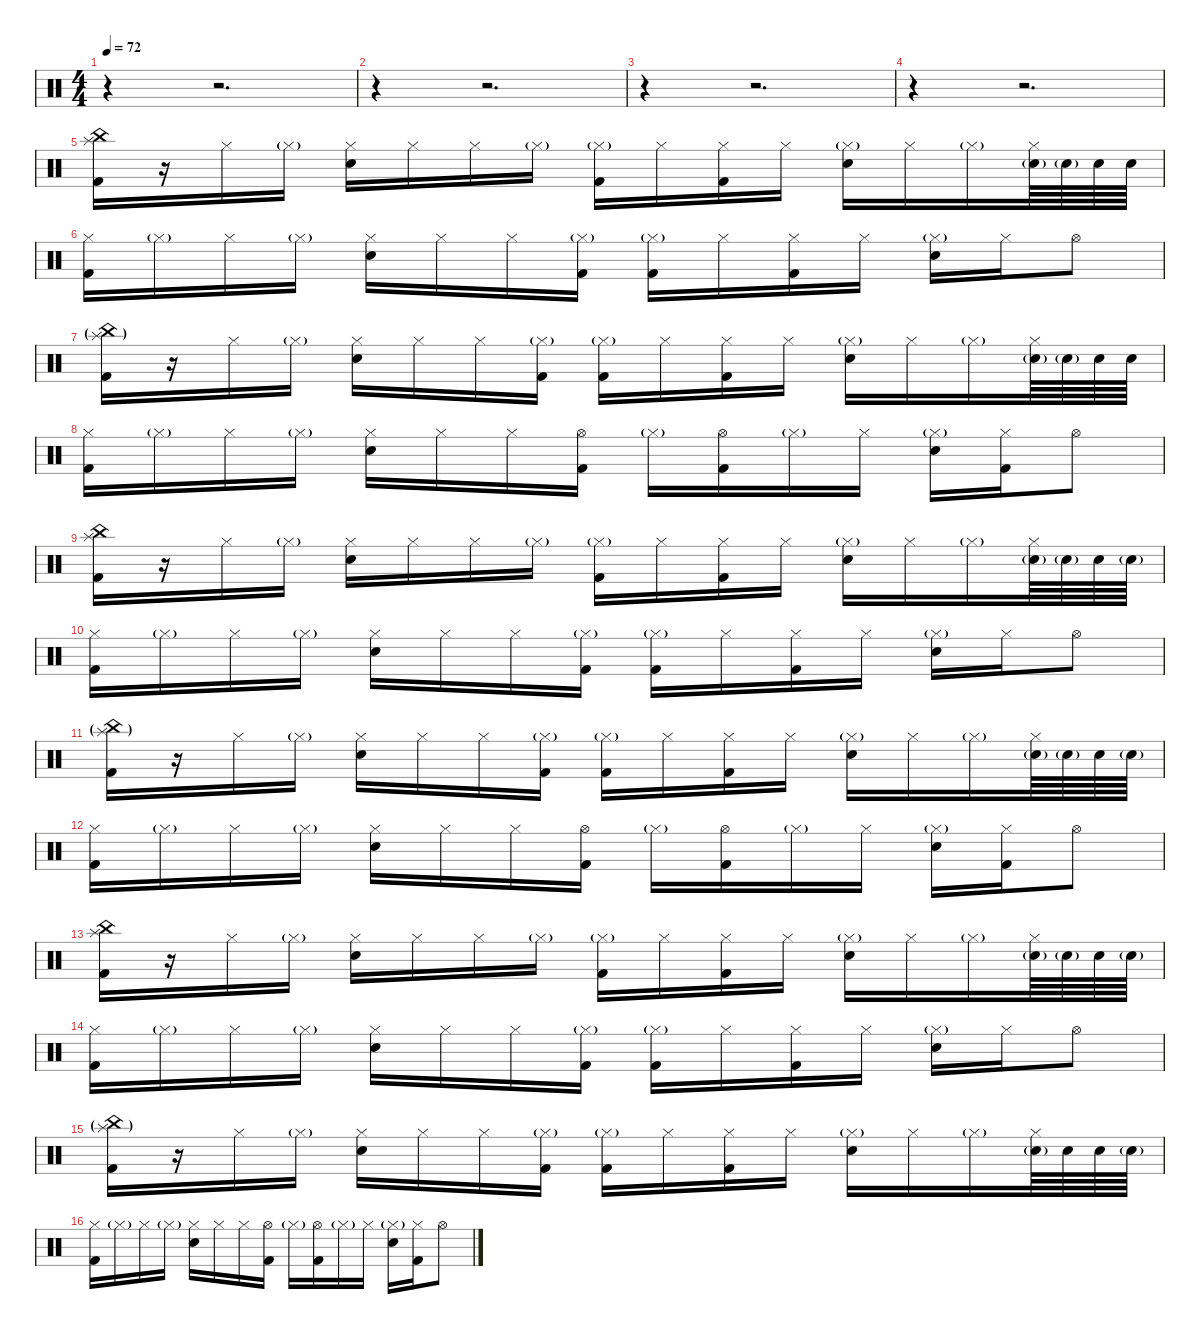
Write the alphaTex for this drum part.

\defaultSystemsLayout 4
\hideDynamics
\bracketExtendMode nobrackets
\singleTrackTrackNamePolicy hidden
\multiTrackTrackNamePolicy hidden
\firstSystemTrackNameMode fullname
\firstSystemTrackNameOrientation horizontal
\otherSystemsTrackNameOrientation horizontal
\track ("Drums" "drm.") {instrument percussion}
\staff {score}
\articulation defaults
\ts (4 4)
\tempo 72
\clef neutral
\ks c
r.4{dy f beam Down} r.2{d beam Down} |
r.4{beam Down} r.2{d beam Down} |
r.4{beam Down} r.2{d beam Down} |
r.4{beam Down} r.2{d beam Down} |
("Splash (hit)" "China (hit)" "Kick (hit) 2").16{beam Down} r.16{beam Down} "Hi-Hat (closed)".16{beam Down} "Hi-Hat (closed)"{g}.16{dy mf beam Down} ("Hi-Hat (closed)" "Snare (hit) 2").16{dy f beam Down} "Hi-Hat (closed)".16{beam Down} "Hi-Hat (closed)".16{beam Down} "Hi-Hat (closed)"{g}.16{dy mf beam Down} ("Hi-Hat (closed)"{g} "Kick (hit) 2").16{dy f beam Down} "Hi-Hat (closed)".16{beam Down} ("Hi-Hat (closed)" "Kick (hit) 2").16{beam Down} "Hi-Hat (closed)".16{beam Down} ("Hi-Hat (closed)"{g} "Snare (hit) 2").16{beam Down} "Hi-Hat (closed)".16{beam Down} "Hi-Hat (closed)"{g}.16{dy mf beam Down} ("Hi-Hat (closed)" "Snare (hit) 2"{g}).64{dy f beam Down} "Snare (hit) 2"{g}.64{beam Down} "Snare (hit) 2".64{beam Down} "Snare (hit) 2".64{dy ff beam Down} |
("Hi-Hat (closed)" "Kick (hit) 2").16{dy f beam Down} "Hi-Hat (closed)"{g}.16{dy mf beam Down} "Hi-Hat (closed)".16{dy f beam Down} "Hi-Hat (closed)"{g}.16{dy mf beam Down} ("Hi-Hat (closed)" "Snare (hit) 2").16{dy f beam Down} "Hi-Hat (closed)".16{beam Down} "Hi-Hat (closed)".16{beam Down} ("Hi-Hat (closed)"{g} "Kick (hit) 2").16{beam Down} ("Hi-Hat (closed)"{g} "Kick (hit) 2").16{beam Down} "Hi-Hat (closed)".16{beam Down} ("Hi-Hat (closed)" "Kick (hit) 2").16{beam Down} "Hi-Hat (closed)".16{beam Down} ("Hi-Hat (closed)"{g} "Snare (hit) 2").16{beam Down} "Hi-Hat (closed)".16{beam Down} "Hi-Hat (open)".8{beam Down} |
("Splash (hit)"{g} "China (hit)"{g} "Kick (hit) 2").16{beam Down} r.16{beam Down} "Hi-Hat (closed)".16{beam Down} "Hi-Hat (closed)"{g}.16{dy mf beam Down} ("Hi-Hat (closed)" "Snare (hit) 2").16{dy f beam Down} "Hi-Hat (closed)".16{beam Down} "Hi-Hat (closed)".16{beam Down} ("Hi-Hat (closed)"{g} "Kick (hit) 2").16{beam Down} ("Hi-Hat (closed)"{g} "Kick (hit) 2").16{beam Down} "Hi-Hat (closed)".16{beam Down} ("Hi-Hat (closed)" "Kick (hit) 2").16{beam Down} "Hi-Hat (closed)".16{beam Down} ("Hi-Hat (closed)"{g} "Snare (hit) 2").16{beam Down} "Hi-Hat (closed)".16{beam Down} "Hi-Hat (closed)"{g}.16{dy mf beam Down} ("Hi-Hat (closed)" "Snare (hit) 2"{g}).64{dy f beam Down} "Snare (hit) 2"{g}.64{dy mf beam Down} "Snare (hit) 2".64{dy f beam Down} "Snare (hit) 2".64{dy mf beam Down} |
("Hi-Hat (closed)" "Kick (hit) 2").16{dy f beam Down} "Hi-Hat (closed)"{g}.16{dy mf beam Down} "Hi-Hat (closed)".16{dy f beam Down} "Hi-Hat (closed)"{g}.16{dy mf beam Down} ("Hi-Hat (closed)" "Snare (hit) 2").16{dy f beam Down} "Hi-Hat (closed)".16{beam Down} "Hi-Hat (closed)".16{beam Down} ("Hi-Hat (open)" "Kick (hit) 2").16{beam Down} "Hi-Hat (closed)"{g}.16{dy mf beam Down} ("Hi-Hat (open)" "Kick (hit) 2").16{dy f beam Down} "Hi-Hat (closed)"{g}.16{dy mf beam Down} "Hi-Hat (closed)".16{dy f beam Down} ("Hi-Hat (closed)"{g} "Snare (hit) 2").16{beam Down} ("Hi-Hat (closed)" "Kick (hit) 2").16{beam Down} "Hi-Hat (open)".8{beam Down} |
("Splash (hit)" "China (hit)" "Kick (hit) 2").16{beam Down} r.16{beam Down} "Hi-Hat (closed)".16{beam Down} "Hi-Hat (closed)"{g}.16{dy mf beam Down} ("Hi-Hat (closed)" "Snare (hit) 2").16{dy f beam Down} "Hi-Hat (closed)".16{beam Down} "Hi-Hat (closed)".16{beam Down} "Hi-Hat (closed)"{g}.16{dy mf beam Down} ("Hi-Hat (closed)"{g} "Kick (hit) 2").16{dy f beam Down} "Hi-Hat (closed)".16{beam Down} ("Hi-Hat (closed)" "Kick (hit) 2").16{beam Down} "Hi-Hat (closed)".16{beam Down} ("Hi-Hat (closed)"{g} "Snare (hit) 2").16{beam Down} "Hi-Hat (closed)".16{beam Down} "Hi-Hat (closed)"{g}.16{dy mf beam Down} ("Hi-Hat (closed)" "Snare (hit) 2"{g}).64{dy f beam Down} "Snare (hit) 2"{g}.64{dy mf beam Down} "Snare (hit) 2".64{dy f beam Down} "Snare (hit) 2"{g}.64{dy mf beam Down} |
("Hi-Hat (closed)" "Kick (hit) 2").16{dy f beam Down} "Hi-Hat (closed)"{g}.16{dy mf beam Down} "Hi-Hat (closed)".16{dy f beam Down} "Hi-Hat (closed)"{g}.16{dy mf beam Down} ("Hi-Hat (closed)" "Snare (hit) 2").16{dy f beam Down} "Hi-Hat (closed)".16{beam Down} "Hi-Hat (closed)".16{beam Down} ("Hi-Hat (closed)"{g} "Kick (hit) 2").16{beam Down} ("Hi-Hat (closed)"{g} "Kick (hit) 2").16{beam Down} "Hi-Hat (closed)".16{beam Down} ("Hi-Hat (closed)" "Kick (hit) 2").16{beam Down} "Hi-Hat (closed)".16{beam Down} ("Hi-Hat (closed)"{g} "Snare (hit) 2").16{beam Down} "Hi-Hat (closed)".16{beam Down} "Hi-Hat (open)".8{beam Down} |
("Splash (hit)"{g} "China (hit)"{g} "Kick (hit) 2").16{beam Down} r.16{beam Down} "Hi-Hat (closed)".16{beam Down} "Hi-Hat (closed)"{g}.16{dy mf beam Down} ("Hi-Hat (closed)" "Snare (hit) 2").16{dy f beam Down} "Hi-Hat (closed)".16{beam Down} "Hi-Hat (closed)".16{beam Down} ("Hi-Hat (closed)"{g} "Kick (hit) 2").16{beam Down} ("Hi-Hat (closed)"{g} "Kick (hit) 2").16{beam Down} "Hi-Hat (closed)".16{beam Down} ("Hi-Hat (closed)" "Kick (hit) 2").16{beam Down} "Hi-Hat (closed)".16{beam Down} ("Hi-Hat (closed)"{g} "Snare (hit) 2").16{beam Down} "Hi-Hat (closed)".16{beam Down} "Hi-Hat (closed)"{g}.16{dy mf beam Down} ("Hi-Hat (closed)" "Snare (hit) 2"{g}).64{dy f beam Down} "Snare (hit) 2"{g}.64{beam Down} "Snare (hit) 2".64{beam Down} "Snare (hit) 2"{g}.64{beam Down} |
("Hi-Hat (closed)" "Kick (hit) 2").16{beam Down} "Hi-Hat (closed)"{g}.16{dy mf beam Down} "Hi-Hat (closed)".16{dy f beam Down} "Hi-Hat (closed)"{g}.16{dy mf beam Down} ("Hi-Hat (closed)" "Snare (hit) 2").16{dy f beam Down} "Hi-Hat (closed)".16{beam Down} "Hi-Hat (closed)".16{beam Down} ("Hi-Hat (open)" "Kick (hit) 2").16{beam Down} "Hi-Hat (closed)"{g}.16{dy mf beam Down} ("Hi-Hat (open)" "Kick (hit) 2").16{dy f beam Down} "Hi-Hat (closed)"{g}.16{dy mf beam Down} "Hi-Hat (closed)".16{dy f beam Down} ("Hi-Hat (closed)"{g} "Snare (hit) 2").16{beam Down} ("Hi-Hat (closed)" "Kick (hit) 2").16{beam Down} "Hi-Hat (open)".8{beam Down} |
("Splash (hit)" "China (hit)" "Kick (hit) 2").16{beam Down} r.16{beam Down} "Hi-Hat (closed)".16{beam Down} "Hi-Hat (closed)"{g}.16{dy mf beam Down} ("Hi-Hat (closed)" "Snare (hit) 2").16{dy f beam Down} "Hi-Hat (closed)".16{beam Down} "Hi-Hat (closed)".16{beam Down} "Hi-Hat (closed)"{g}.16{dy mf beam Down} ("Hi-Hat (closed)"{g} "Kick (hit) 2").16{dy f beam Down} "Hi-Hat (closed)".16{beam Down} ("Hi-Hat (closed)" "Kick (hit) 2").16{beam Down} "Hi-Hat (closed)".16{beam Down} ("Hi-Hat (closed)"{g} "Snare (hit) 2").16{beam Down} "Hi-Hat (closed)".16{beam Down} "Hi-Hat (closed)"{g}.16{dy mf beam Down} ("Hi-Hat (closed)" "Snare (hit) 2"{g}).64{dy f beam Down} "Snare (hit) 2"{g}.64{dy mf beam Down} "Snare (hit) 2".64{dy f beam Down} "Snare (hit) 2"{g}.64{dy mf beam Down} |
("Hi-Hat (closed)" "Kick (hit) 2").16{dy f beam Down} "Hi-Hat (closed)"{g}.16{dy mf beam Down} "Hi-Hat (closed)".16{dy f beam Down} "Hi-Hat (closed)"{g}.16{dy mf beam Down} ("Hi-Hat (closed)" "Snare (hit) 2").16{dy f beam Down} "Hi-Hat (closed)".16{beam Down} "Hi-Hat (closed)".16{beam Down} ("Hi-Hat (closed)"{g} "Kick (hit) 2").16{beam Down} ("Hi-Hat (closed)"{g} "Kick (hit) 2").16{beam Down} "Hi-Hat (closed)".16{beam Down} ("Hi-Hat (closed)" "Kick (hit) 2").16{beam Down} "Hi-Hat (closed)".16{beam Down} ("Hi-Hat (closed)"{g} "Snare (hit) 2").16{beam Down} "Hi-Hat (closed)".16{beam Down} "Hi-Hat (open)".8{beam Down} |
("Splash (hit)"{g} "China (hit)"{g} "Kick (hit) 2").16{beam Down} r.16{beam Down} "Hi-Hat (closed)".16{beam Down} "Hi-Hat (closed)"{g}.16{dy mf beam Down} ("Hi-Hat (closed)" "Snare (hit) 2").16{dy f beam Down} "Hi-Hat (closed)".16{beam Down} "Hi-Hat (closed)".16{beam Down} ("Hi-Hat (closed)"{g} "Kick (hit) 2").16{beam Down} ("Hi-Hat (closed)"{g} "Kick (hit) 2").16{beam Down} "Hi-Hat (closed)".16{beam Down} ("Hi-Hat (closed)" "Kick (hit) 2").16{beam Down} "Hi-Hat (closed)".16{beam Down} ("Hi-Hat (closed)"{g} "Snare (hit) 2").16{beam Down} "Hi-Hat (closed)".16{beam Down} "Hi-Hat (closed)"{g}.16{dy mf beam Down} ("Hi-Hat (closed)" "Snare (hit) 2"{g}).64{dy f beam Down} "Snare (hit) 2".64{dy mf beam Down} "Snare (hit) 2".64{dy f beam Down} "Snare (hit) 2"{g}.64{dy fff beam Down} |
("Hi-Hat (closed)" "Kick (hit) 2").16{dy f beam Down} "Hi-Hat (closed)"{g}.16{dy mf beam Down} "Hi-Hat (closed)".16{dy f beam Down} "Hi-Hat (closed)"{g}.16{dy mf beam Down} ("Hi-Hat (closed)" "Snare (hit) 2").16{dy f beam Down} "Hi-Hat (closed)".16{beam Down} "Hi-Hat (closed)".16{beam Down} ("Hi-Hat (open)" "Kick (hit) 2").16{beam Down} "Hi-Hat (closed)"{g}.16{dy mf beam Down} ("Hi-Hat (open)" "Kick (hit) 2").16{dy f beam Down} "Hi-Hat (closed)"{g}.16{dy mf beam Down} "Hi-Hat (closed)".16{dy f beam Down} ("Hi-Hat (closed)"{g} "Snare (hit) 2").16{beam Down} ("Hi-Hat (closed)" "Kick (hit) 2").16{beam Down} "Hi-Hat (open)".8{beam Down}
